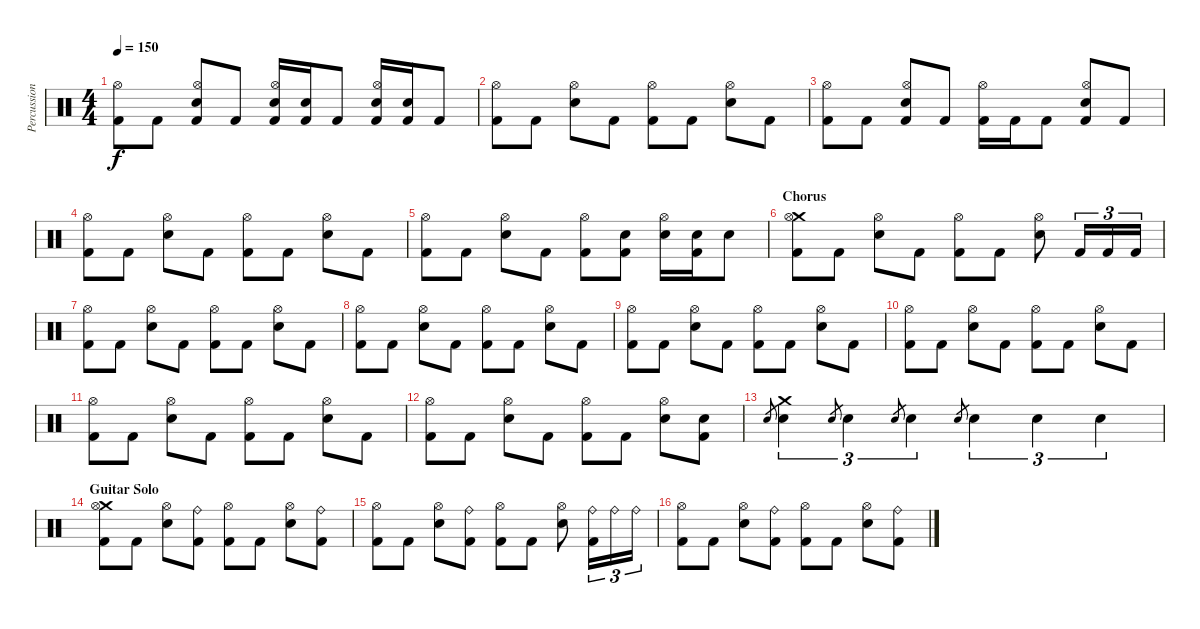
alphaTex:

\track ("Percussion" "Percussion") {instrument percussion}
\staff {score}
\articulation defaults
\ts (4 4)
\tempo 150
\clef neutral
\ks c
("Kick (hit) 2" "Hi-Hat (open)").8{dy f} "Kick (hit) 2".8 ("Electric Snare (hit)" "Kick (hit) 2" "Hi-Hat (open)").8 "Kick (hit) 2".8 ("Kick (hit) 2" "Electric Snare (hit)" "Hi-Hat (open)").16 ("Kick (hit) 2" "Electric Snare (hit)").16 "Kick (hit) 2".8 ("Electric Snare (hit)" "Kick (hit) 2" "Hi-Hat (open)").16 ("Kick (hit) 2" "Electric Snare (hit)").16 "Kick (hit) 2".8 |
("Kick (hit) 2" "Hi-Hat (open)").8 "Kick (hit) 2".8 ("Electric Snare (hit)" "Hi-Hat (open)").8 "Kick (hit) 2".8 ("Kick (hit) 2" "Hi-Hat (open)").8 "Kick (hit) 2".8 ("Electric Snare (hit)" "Hi-Hat (open)").8 "Kick (hit) 2".8 |
("Kick (hit) 2" "Hi-Hat (open)").8 "Kick (hit) 2".8 ("Electric Snare (hit)" "Kick (hit) 2" "Hi-Hat (open)").8 "Kick (hit) 2".8 ("Kick (hit) 2" "Hi-Hat (open)").16 "Kick (hit) 2".16 "Kick (hit) 2".8 ("Electric Snare (hit)" "Kick (hit) 2" "Hi-Hat (open)").8 "Kick (hit) 2".8 |
("Kick (hit) 2" "Hi-Hat (open)").8 "Kick (hit) 2".8 ("Electric Snare (hit)" "Hi-Hat (open)").8 "Kick (hit) 2".8 ("Kick (hit) 2" "Hi-Hat (open)").8 "Kick (hit) 2".8 ("Electric Snare (hit)" "Hi-Hat (open)").8 "Kick (hit) 2".8 |
("Kick (hit) 2" "Hi-Hat (open)").8 "Kick (hit) 2".8 ("Electric Snare (hit)" "Hi-Hat (open)").8 "Kick (hit) 2".8 ("Kick (hit) 2" "Hi-Hat (open)").8 ("Kick (hit) 2" "Snare (hit) 2").8 ("Snare (hit) 2" "Hi-Hat (open)").16 ("Kick (hit) 2" "Snare (hit) 2").16 "Electric Snare (hit)".8 |
\section ("" "Chorus")
("Kick (hit) 2" "Crash medium (hit)" "Hi-Hat (open)").8 "Kick (hit) 2".8 ("Electric Snare (hit)" "Hi-Hat (open)").8 "Kick (hit) 2".8 ("Kick (hit) 2" "Hi-Hat (open)").8 "Kick (hit) 2".8 ("Electric Snare (hit)" "Hi-Hat (open)").8 "Kick (hit) 2".16{tu (3 2)} "Kick (hit) 2".16{tu (3 2)} "Kick (hit) 2".16{tu (3 2)} |
("Kick (hit) 2" "Hi-Hat (open)").8 "Kick (hit) 2".8 ("Electric Snare (hit)" "Hi-Hat (open)").8 "Kick (hit) 2".8 ("Kick (hit) 2" "Hi-Hat (open)").8 "Kick (hit) 2".8 ("Electric Snare (hit)" "Hi-Hat (open)").8 "Kick (hit) 2".8 |
("Kick (hit) 2" "Hi-Hat (open)").8 "Kick (hit) 2".8 ("Electric Snare (hit)" "Hi-Hat (open)").8 "Kick (hit) 2".8 ("Kick (hit) 2" "Hi-Hat (open)").8 "Kick (hit) 2".8 ("Electric Snare (hit)" "Hi-Hat (open)").8 "Kick (hit) 2".8 |
("Kick (hit) 2" "Hi-Hat (open)").8 "Kick (hit) 2".8 ("Electric Snare (hit)" "Hi-Hat (open)").8 "Kick (hit) 2".8 ("Kick (hit) 2" "Hi-Hat (open)").8 "Kick (hit) 2".8 ("Electric Snare (hit)" "Hi-Hat (open)").8 "Kick (hit) 2".8 |
("Kick (hit) 2" "Hi-Hat (open)").8 "Kick (hit) 2".8 ("Electric Snare (hit)" "Hi-Hat (open)").8 "Kick (hit) 2".8 ("Kick (hit) 2" "Hi-Hat (open)").8 "Kick (hit) 2".8 ("Electric Snare (hit)" "Hi-Hat (open)").8 "Kick (hit) 2".8 |
("Kick (hit) 2" "Hi-Hat (open)").8 "Kick (hit) 2".8 ("Electric Snare (hit)" "Hi-Hat (open)").8 "Kick (hit) 2".8 ("Kick (hit) 2" "Hi-Hat (open)").8 "Kick (hit) 2".8 ("Electric Snare (hit)" "Hi-Hat (open)").8 "Kick (hit) 2".8 |
("Kick (hit) 2" "Hi-Hat (open)").8 "Kick (hit) 2".8 ("Electric Snare (hit)" "Hi-Hat (open)").8 "Kick (hit) 2".8 ("Kick (hit) 2" "Hi-Hat (open)").8 "Kick (hit) 2".8 ("Electric Snare (hit)" "Hi-Hat (open)").8 ("Kick (hit) 2" "Electric Snare (hit)").8 |
"Electric Snare (hit)".8{gr} ("Electric Snare (hit)" "Crash medium (hit)").4{tu (3 2)} "Electric Snare (hit)".8{gr} "Electric Snare (hit)".4{tu (3 2)} "Electric Snare (hit)".8{gr} "Electric Snare (hit)".4{tu (3 2)} "Electric Snare (hit)".8{gr} "Electric Snare (hit)".4{tu (3 2)} "Electric Snare (hit)".4{tu (3 2)} "Electric Snare (hit)".4{tu (3 2)} |
\section ("" "Guitar Solo")
("Kick (hit) 2" "Crash medium (hit)" "Hi-Hat (open)").8 "Kick (hit) 2".8 ("Electric Snare (hit)" "Hi-Hat (open)").8 ("Kick (hit) 2" "Ride (bell)").8 ("Kick (hit) 2" "Hi-Hat (open)").8 "Kick (hit) 2".8 ("Electric Snare (hit)" "Hi-Hat (open)").8 ("Kick (hit) 2" "Ride (bell)").8 |
("Kick (hit) 2" "Hi-Hat (open)").8 "Kick (hit) 2".8 ("Electric Snare (hit)" "Hi-Hat (open)").8 ("Kick (hit) 2" "Ride (bell)").8 ("Kick (hit) 2" "Hi-Hat (open)").8 "Kick (hit) 2".8 ("Electric Snare (hit)" "Hi-Hat (open)").8 ("Kick (hit) 2" "Ride (bell)").16{tu (3 2)} "Ride (bell)".16{tu (3 2)} "Ride (bell)".16{tu (3 2)} |
("Kick (hit) 2" "Hi-Hat (open)").8 "Kick (hit) 2".8 ("Electric Snare (hit)" "Hi-Hat (open)").8 ("Kick (hit) 2" "Ride (bell)").8 ("Kick (hit) 2" "Hi-Hat (open)").8 "Kick (hit) 2".8 ("Electric Snare (hit)" "Hi-Hat (open)").8 ("Kick (hit) 2" "Ride (bell)").8
